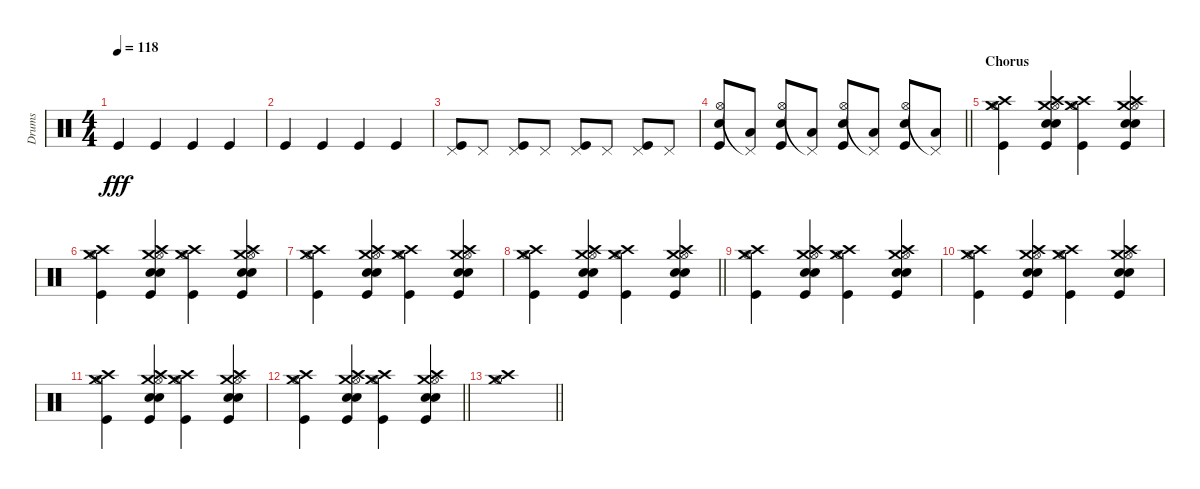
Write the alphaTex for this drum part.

\track ("Drums" "Drums") {instrument percussion}
\staff {score}
\articulation defaults
\ts (4 4)
\tempo 118
\clef neutral
\ks c "Kick (hit)".4{dy fff} "Kick (hit)".4 "Kick (hit)".4 "Kick (hit)".4
|
"Kick (hit)".4 "Kick (hit)".4 "Kick (hit)".4 "Kick (hit)".4 |
("Pedal Hi-Hat (hit)" "Kick (hit)").8 "Pedal Hi-Hat (hit)".8 ("Pedal Hi-Hat (hit)" "Kick (hit)").8 "Pedal Hi-Hat (hit)".8 ("Pedal Hi-Hat (hit)" "Kick (hit)").8 "Pedal Hi-Hat (hit)".8 ("Pedal Hi-Hat (hit)" "Kick (hit)").8 "Pedal Hi-Hat (hit)".8 |
\barLineRight lightlight
("Hi-Hat (open)" "Snare (hit) 2" "Kick (hit)").8 ("Pedal Hi-Hat (hit)"{t} "Low Floor Tom (hit)").8 ("Hi-Hat (open)" "Snare (hit) 2" "Kick (hit)").8 ("Pedal Hi-Hat (hit)"{t} "Low Floor Tom (hit)").8 ("Hi-Hat (open)" "Snare (hit) 2" "Kick (hit)").8 ("Pedal Hi-Hat (hit)"{t} "Low Floor Tom (hit)").8 ("Hi-Hat (open)" "Snare (hit) 2" "Kick (hit)").8 ("Pedal Hi-Hat (hit)"{t} "Low Floor Tom (hit)").8 |
\section ("" "Chorus")
("Crash medium (hit)" "Crash high (hit)" "Hi-Hat (open)" "Kick (hit)").4 ("Crash medium (hit)" "Crash high (hit)" "Snare (hit) 2" "Hi-Hat (open)" "Electric Snare (hit)" "Kick (hit)").4 ("Crash medium (hit)" "Crash high (hit)" "Hi-Hat (open)" "Kick (hit)").4 ("Crash medium (hit)" "Crash high (hit)" "Snare (hit) 2" "Hi-Hat (open)" "Electric Snare (hit)" "Kick (hit)").4 |
("Crash medium (hit)" "Crash high (hit)" "Hi-Hat (open)" "Kick (hit)").4 ("Crash medium (hit)" "Crash high (hit)" "Snare (hit) 2" "Hi-Hat (open)" "Electric Snare (hit)" "Kick (hit)").4 ("Crash medium (hit)" "Crash high (hit)" "Hi-Hat (open)" "Kick (hit)").4 ("Crash medium (hit)" "Crash high (hit)" "Snare (hit) 2" "Hi-Hat (open)" "Electric Snare (hit)" "Kick (hit)").4 |
("Crash medium (hit)" "Crash high (hit)" "Hi-Hat (open)" "Kick (hit)").4 ("Crash medium (hit)" "Crash high (hit)" "Snare (hit) 2" "Hi-Hat (open)" "Electric Snare (hit)" "Kick (hit)").4 ("Crash medium (hit)" "Crash high (hit)" "Hi-Hat (open)" "Kick (hit)").4 ("Crash medium (hit)" "Crash high (hit)" "Snare (hit) 2" "Hi-Hat (open)" "Electric Snare (hit)" "Kick (hit)").4 |
\barLineRight lightlight
("Crash medium (hit)" "Crash high (hit)" "Hi-Hat (open)" "Kick (hit)").4 ("Crash medium (hit)" "Crash high (hit)" "Snare (hit) 2" "Hi-Hat (open)" "Electric Snare (hit)" "Kick (hit)").4 ("Crash medium (hit)" "Crash high (hit)" "Hi-Hat (open)" "Kick (hit)").4 ("Crash medium (hit)" "Crash high (hit)" "Snare (hit) 2" "Hi-Hat (open)" "Electric Snare (hit)" "Kick (hit)").4 |
("Crash medium (hit)" "Crash high (hit)" "Hi-Hat (open)" "Kick (hit)").4 ("Crash medium (hit)" "Crash high (hit)" "Snare (hit) 2" "Hi-Hat (open)" "Electric Snare (hit)" "Kick (hit)").4 ("Crash medium (hit)" "Crash high (hit)" "Hi-Hat (open)" "Kick (hit)").4 ("Crash medium (hit)" "Crash high (hit)" "Snare (hit) 2" "Hi-Hat (open)" "Electric Snare (hit)" "Kick (hit)").4 |
("Crash medium (hit)" "Crash high (hit)" "Hi-Hat (open)" "Kick (hit)").4 ("Crash medium (hit)" "Crash high (hit)" "Snare (hit) 2" "Hi-Hat (open)" "Electric Snare (hit)" "Kick (hit)").4 ("Crash medium (hit)" "Crash high (hit)" "Hi-Hat (open)" "Kick (hit)").4 ("Crash medium (hit)" "Crash high (hit)" "Snare (hit) 2" "Hi-Hat (open)" "Electric Snare (hit)" "Kick (hit)").4 |
("Crash medium (hit)" "Crash high (hit)" "Hi-Hat (open)" "Kick (hit)").4 ("Crash medium (hit)" "Crash high (hit)" "Snare (hit) 2" "Hi-Hat (open)" "Electric Snare (hit)" "Kick (hit)").4 ("Crash medium (hit)" "Crash high (hit)" "Hi-Hat (open)" "Kick (hit)").4 ("Crash medium (hit)" "Crash high (hit)" "Snare (hit) 2" "Hi-Hat (open)" "Electric Snare (hit)" "Kick (hit)").4 |
\barLineRight lightlight
("Crash medium (hit)" "Crash high (hit)" "Hi-Hat (open)" "Kick (hit)").4 ("Crash medium (hit)" "Crash high (hit)" "Snare (hit) 2" "Hi-Hat (open)" "Electric Snare (hit)" "Kick (hit)").4 ("Crash medium (hit)" "Crash high (hit)" "Hi-Hat (open)" "Kick (hit)").4 ("Crash medium (hit)" "Crash high (hit)" "Snare (hit) 2" "Hi-Hat (open)" "Electric Snare (hit)" "Kick (hit)").4 |
\barLineRight lightlight
("Crash medium (hit)" "Crash high (hit)" "Hi-Hat (open)").1
